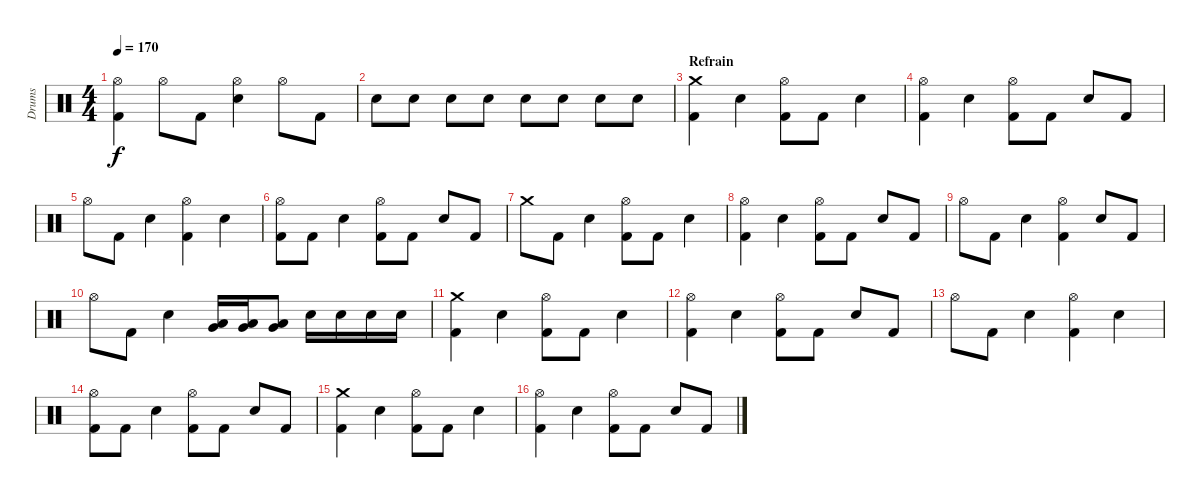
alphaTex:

\track ("Drums" "Drums") {instrument percussion}
\staff {score}
\articulation defaults
\ts (4 4)
\tempo 170
\clef neutral
\ks c
("Hi-Hat (open)" "Kick (hit) 2").4{dy f} "Hi-Hat (open)".8 "Kick (hit) 2".8 ("Hi-Hat (open)" "Snare (hit) 2").4 "Hi-Hat (open)".8 "Kick (hit) 2".8 |
"Snare (hit) 2".8 "Snare (hit) 2".8 "Snare (hit) 2".8 "Snare (hit) 2".8 "Snare (hit) 2".8 "Snare (hit) 2".8 "Snare (hit) 2".8 "Snare (hit) 2".8 |
\section ("" "Refrain")
("Crash medium (hit)" "Kick (hit) 2").4 "Snare (hit) 2".4 ("Hi-Hat (open)" "Kick (hit) 2").8 "Kick (hit) 2".8 "Snare (hit) 2".4 |
("Hi-Hat (open)" "Kick (hit) 2").4 "Snare (hit) 2".4 ("Hi-Hat (open)" "Kick (hit) 2").8 "Kick (hit) 2".8 "Snare (hit) 2".8 "Kick (hit) 2".8 |
"Hi-Hat (open)".8 "Kick (hit) 2".8 "Snare (hit) 2".4 ("Hi-Hat (open)" "Kick (hit) 2").4 "Snare (hit) 2".4 |
("Hi-Hat (open)" "Kick (hit) 2").8 "Kick (hit) 2".8 "Snare (hit) 2".4 ("Hi-Hat (open)" "Kick (hit) 2").8 "Kick (hit) 2".8 "Snare (hit) 2".8 "Kick (hit) 2".8 |
"Crash medium (hit)".8 "Kick (hit) 2".8 "Snare (hit) 2".4 ("Hi-Hat (open)" "Kick (hit) 2").8 "Kick (hit) 2".8 "Snare (hit) 2".4 |
("Hi-Hat (open)" "Kick (hit) 2").4 "Snare (hit) 2".4 ("Hi-Hat (open)" "Kick (hit) 2").8 "Kick (hit) 2".8 "Snare (hit) 2".8 "Kick (hit) 2".8 |
"Hi-Hat (open)".8 "Kick (hit) 2".8 "Snare (hit) 2".4 ("Hi-Hat (open)" "Kick (hit) 2").4 "Snare (hit) 2".8 "Kick (hit) 2".8 |
"Hi-Hat (open)".8 "Kick (hit) 2".8 "Snare (hit) 2".4 ("Low Tom (hit)" "Very Low Tom (hit)").16 ("Low Tom (hit)" "Very Low Tom (hit)").16 ("Low Tom (hit)" "Very Low Tom (hit)").8 "Snare (hit) 2".16 "Snare (hit) 2".16 "Snare (hit) 2".16 "Snare (hit) 2".16 |
("Crash medium (hit)" "Kick (hit) 2").4 "Snare (hit) 2".4 ("Hi-Hat (open)" "Kick (hit) 2").8 "Kick (hit) 2".8 "Snare (hit) 2".4 |
("Hi-Hat (open)" "Kick (hit) 2").4 "Snare (hit) 2".4 ("Hi-Hat (open)" "Kick (hit) 2").8 "Kick (hit) 2".8 "Snare (hit) 2".8 "Kick (hit) 2".8 |
"Hi-Hat (open)".8 "Kick (hit) 2".8 "Snare (hit) 2".4 ("Hi-Hat (open)" "Kick (hit) 2").4 "Snare (hit) 2".4 |
("Hi-Hat (open)" "Kick (hit) 2").8 "Kick (hit) 2".8 "Snare (hit) 2".4 ("Hi-Hat (open)" "Kick (hit) 2").8 "Kick (hit) 2".8 "Snare (hit) 2".8 "Kick (hit) 2".8 |
("Crash medium (hit)" "Kick (hit) 2").4 "Snare (hit) 2".4 ("Hi-Hat (open)" "Kick (hit) 2").8 "Kick (hit) 2".8 "Snare (hit) 2".4 |
("Hi-Hat (open)" "Kick (hit) 2").4 "Snare (hit) 2".4 ("Hi-Hat (open)" "Kick (hit) 2").8 "Kick (hit) 2".8 "Snare (hit) 2".8 "Kick (hit) 2".8
